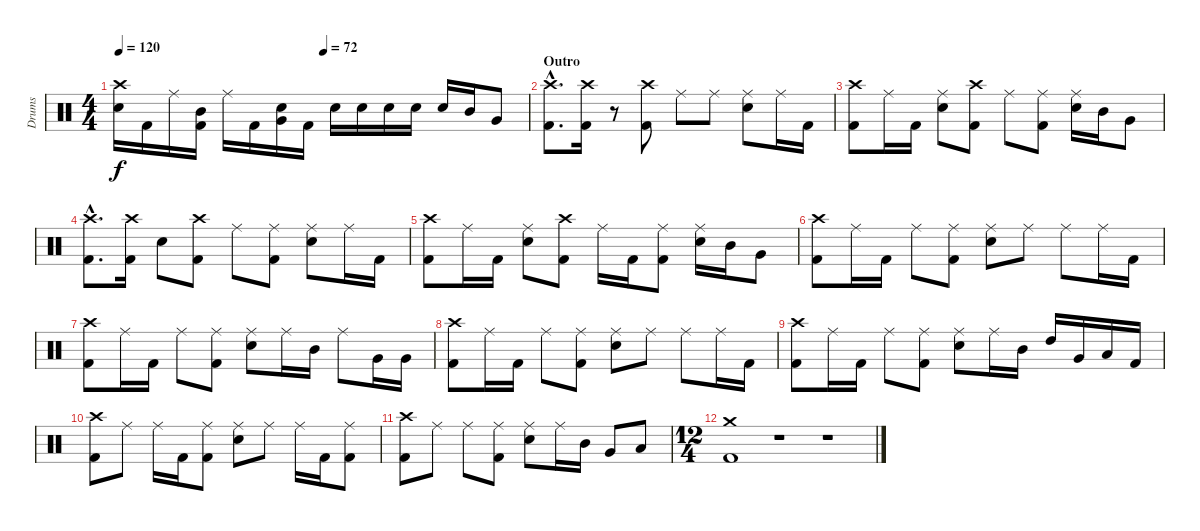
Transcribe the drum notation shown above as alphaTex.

\track ("Drums" "Drums") {instrument percussion}
\staff {score}
\articulation defaults
\ts (4 4)
\tempo 120
\tempo (72 0.5)
\clef neutral
\ks c
("Crash high (hit)" "Electric Snare (hit)").16{dy f} "Kick (hit) 2".16 "Ride (middle)".16 ("Mid Tom (hit)" "Kick (hit) 2").16 "Ride (middle)".16 "Kick (hit) 2".16 ("Electric Snare (hit)" "Very Low Tom (hit)").16 "Kick (hit) 2".16 "Electric Snare (hit)".16 "Electric Snare (hit)".16 "Electric Snare (hit)".16 "Electric Snare (hit)".16 "Electric Snare (hit)".16 "Mid Tom (hit)".16 "Very Low Tom (hit)".8 |
\section ("" "Outro")
("Crash high (hit)"{hac} "Kick (hit) 2"{hac}).8{d} ("Crash high (hit)" "Kick (hit) 2").16 r.8 ("Crash high (hit)" "Kick (hit) 2").8 "Ride (middle)".8 "Ride (middle)".8 ("Ride (middle)" "Electric Snare (hit)").8 "Ride (middle)".16 "Kick (hit) 2".16 |
("Crash high (hit)" "Kick (hit) 2").8 "Ride (middle)".16 "Kick (hit) 2".16 ("Ride (middle)" "Electric Snare (hit)").8 ("Crash high (hit)" "Kick (hit) 2").8 "Ride (middle)".8 ("Ride (middle)" "Kick (hit) 2").8 ("Ride (middle)" "Electric Snare (hit)").16 "Mid Tom (hit)".16 "Very Low Tom (hit)".8 |
("Crash high (hit)"{hac} "Kick (hit) 2"{hac}).8{d} ("Crash high (hit)" "Kick (hit) 2").16 "Electric Snare (hit)".8 ("Crash high (hit)" "Kick (hit) 2").8 "Ride (middle)".8 ("Ride (middle)" "Kick (hit) 2").8 ("Ride (middle)" "Electric Snare (hit)").8 "Ride (middle)".16 "Kick (hit) 2".16 |
("Crash high (hit)" "Kick (hit) 2").8 "Ride (middle)".16 "Kick (hit) 2".16 ("Ride (middle)" "Electric Snare (hit)").8 ("Crash high (hit)" "Kick (hit) 2").8 "Ride (middle)".16 "Kick (hit) 2".16 ("Ride (middle)" "Kick (hit) 2").8 ("Ride (middle)" "Electric Snare (hit)").16 "Mid Tom (hit)".16 "Very Low Tom (hit)".8 |
("Crash high (hit)" "Kick (hit) 2").8 "Ride (middle)".16 "Kick (hit) 2".16 "Ride (middle)".8 ("Ride (middle)" "Kick (hit) 2").8 ("Ride (middle)" "Electric Snare (hit)").8 "Ride (middle)".8 "Ride (middle)".8 "Ride (middle)".16 "Kick (hit) 2".16 |
("Crash high (hit)" "Kick (hit) 2").8 "Ride (middle)".16 "Kick (hit) 2".16 "Ride (middle)".8 ("Ride (middle)" "Kick (hit) 2").8 ("Ride (middle)" "Electric Snare (hit)").8 "Ride (middle)".16 "Mid Tom (hit)".16 "Ride (middle)".8 "Very Low Tom (hit)".16 "Very Low Tom (hit)".16 |
("Crash high (hit)" "Kick (hit) 2").8 "Ride (middle)".16 "Kick (hit) 2".16 "Ride (middle)".8 ("Ride (middle)" "Kick (hit) 2").8 ("Ride (middle)" "Electric Snare (hit)").8 "Ride (middle)".8 "Ride (middle)".8 "Ride (middle)".16 "Kick (hit) 2".16 |
("Crash high (hit)" "Kick (hit) 2").8 "Ride (middle)".16 "Kick (hit) 2".16 "Ride (middle)".8 ("Ride (middle)" "Kick (hit) 2").8 ("Ride (middle)" "Electric Snare (hit)").8 "Ride (middle)".16 "Mid Tom (hit)".16 "High Tom (hit)".16 "Very Low Tom (hit)".16 "Low Floor Tom (hit)".16 "Kick (hit) 2".16 |
("Crash high (hit)" "Kick (hit) 2").8 "Ride (middle)".8 "Ride (middle)".16 "Kick (hit) 2".16 ("Ride (middle)" "Kick (hit) 2").8 ("Ride (middle)" "Electric Snare (hit)").8 "Ride (middle)".8 "Ride (middle)".16 "Kick (hit) 2".16 ("Ride (middle)" "Kick (hit) 2").8 |
("Crash high (hit)" "Kick (hit) 2").8 "Ride (middle)".8 "Ride (middle)".8 ("Ride (middle)" "Kick (hit) 2").8 ("Ride (middle)" "Electric Snare (hit)").8 "Ride (middle)".16 "Mid Tom (hit)".16 "Very Low Tom (hit)".8 "Low Floor Tom (hit)".8 |
\ts (12 4)
("Crash medium (hit)" "Kick (hit) 2").1 r.1 r.1
